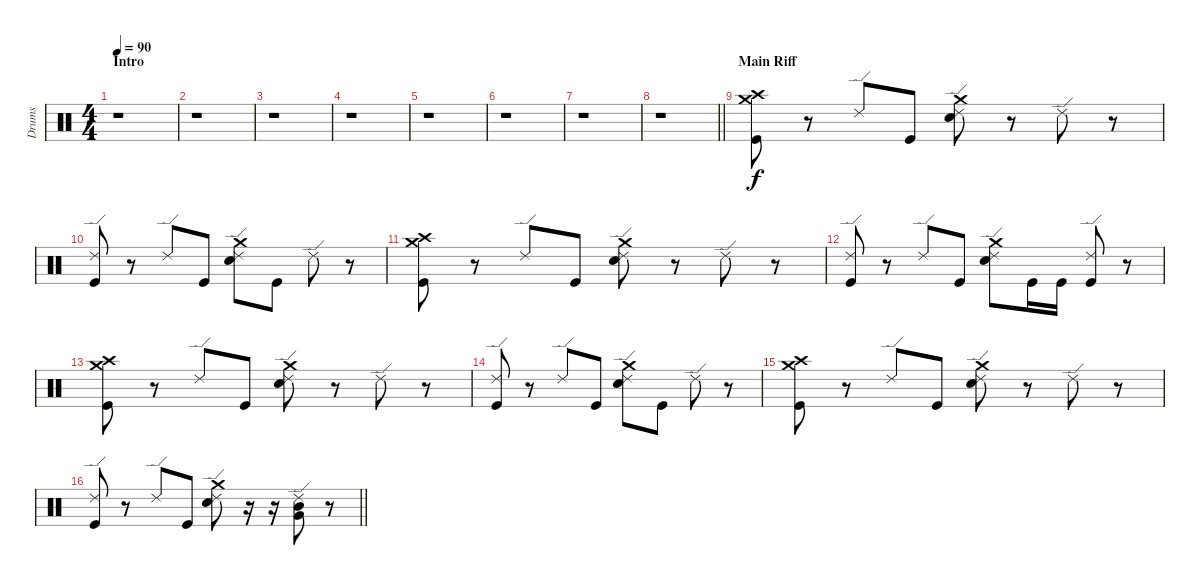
\track ("Drums" "Drums") {instrument percussion}
\staff {score}
\articulation defaults
\ts (4 4)
\section ("" "Intro")
\tempo 90
\clef neutral
\ks c
r.1{dy f} |
r.1 |
r.1 |
r.1 |
r.1 |
r.1 |
r.1 |
\barLineRight lightlight
r.1 |
\section ("" "Main Riff")
("Crash high (hit)" "Kick (hit)" "Crash medium (hit)").8 r.8 "Ride (edge) 2".8 "Kick (hit)".8 ("Ride (edge) 2" "Snare (hit) 2" "Crash medium (hit)").8 r.8 "Ride (edge) 2".8 r.8 |
("Ride (edge) 2" "Kick (hit)").8 r.8 "Ride (edge) 2".8 "Kick (hit)".8 ("Ride (edge) 2" "Snare (hit) 2" "Crash medium (hit)").8 "Kick (hit)".8 "Ride (edge) 2".8 r.8 |
("Crash high (hit)" "Kick (hit)" "Crash medium (hit)").8 r.8 "Ride (edge) 2".8 "Kick (hit)".8 ("Ride (edge) 2" "Snare (hit) 2" "Crash medium (hit)").8 r.8 "Ride (edge) 2".8 r.8 |
("Ride (edge) 2" "Kick (hit)").8 r.8 "Ride (edge) 2".8 "Kick (hit)".8 ("Ride (edge) 2" "Snare (hit) 2" "Crash medium (hit)").8 "Kick (hit)".16 "Kick (hit)".16 ("Ride (edge) 2" "Kick (hit)").8 r.8 |
("Crash high (hit)" "Kick (hit)" "Crash medium (hit)").8 r.8 "Ride (edge) 2".8 "Kick (hit)".8 ("Ride (edge) 2" "Snare (hit) 2" "Crash medium (hit)").8 r.8 "Ride (edge) 2".8 r.8 |
("Ride (edge) 2" "Kick (hit)").8 r.8 "Ride (edge) 2".8 "Kick (hit)".8 ("Ride (edge) 2" "Snare (hit) 2" "Crash medium (hit)").8 "Kick (hit)".8 "Ride (edge) 2".8 r.8 |
("Crash high (hit)" "Kick (hit)" "Crash medium (hit)").8 r.8 "Ride (edge) 2".8 "Kick (hit)".8 ("Ride (edge) 2" "Snare (hit) 2" "Crash medium (hit)").8 r.8 "Ride (edge) 2".8 r.8 |
\barLineRight lightlight
("Ride (edge) 2" "Kick (hit)").8 r.8 "Ride (edge) 2".8 "Kick (hit)".8 ("Ride (edge) 2" "Snare (hit) 2" "Crash medium (hit)").8 r.16 r.16 ("Ride (edge) 2" "Very Low Tom (hit)" "Mid Tom (hit)").8 r.8
